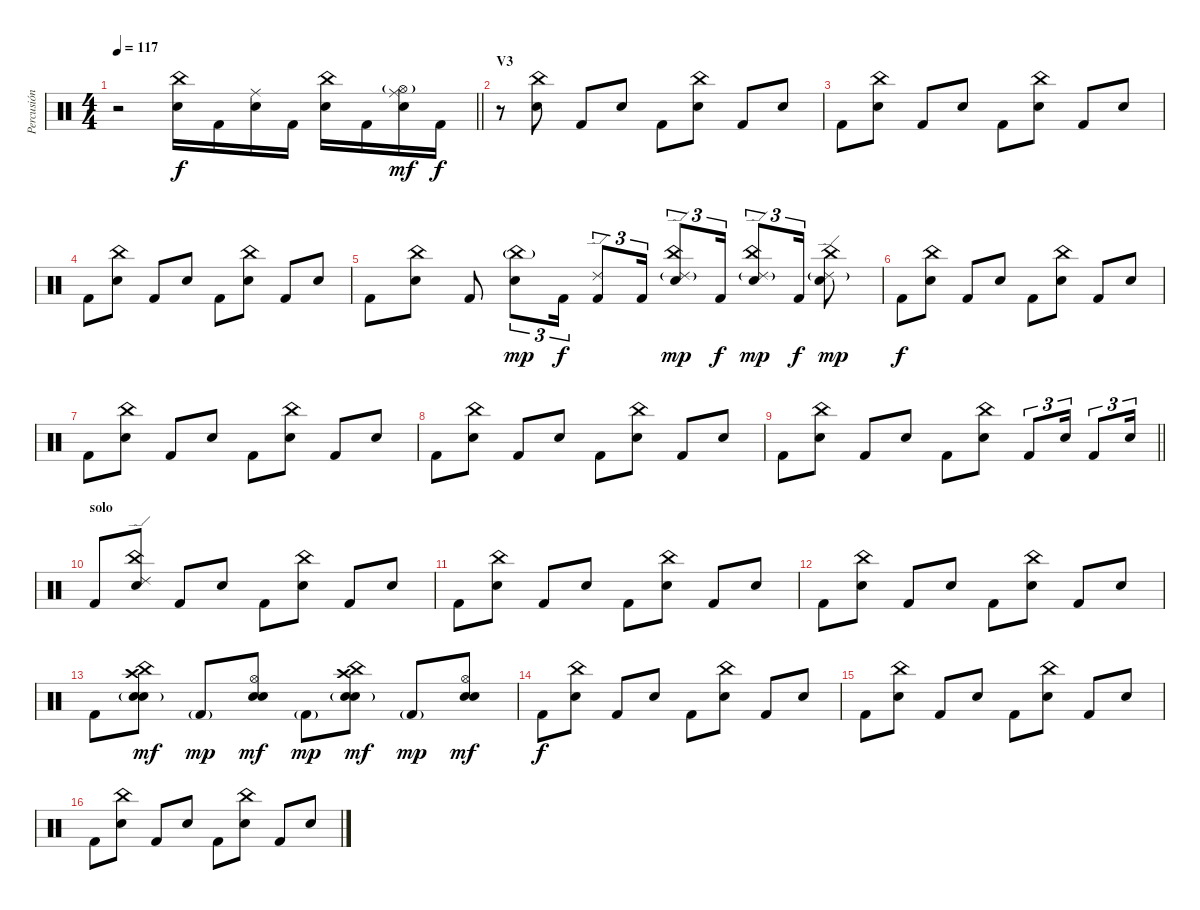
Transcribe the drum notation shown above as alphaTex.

\track ("Percusión" "Percusión") {instrument percussion}
\staff {score}
\articulation defaults
\ts (4 4)
\tempo 117
\clef neutral
\barLineRight lightlight
\ks c
r.2{dy mf} ("Snare (hit) 2" "China (hit)").16{dy f} "Kick (hit) 2".16 ("Snare (hit) 2" "Ride (middle)").16 "Kick (hit) 2".16 ("Snare (hit) 2" "China (hit)").16 "Kick (hit) 2".16 ("Snare (hit) 2" "Ride (middle)" "Hi-Hat (open)"{g}).16{dy mf} "Kick (hit) 2".16{dy f} |
\section ("" "V3")
r.8 ("Snare (hit) 2" "China (hit)").8 "Kick (hit) 2".8 "Snare (hit) 2".8 "Kick (hit) 2".8 ("Snare (hit) 2" "China (hit)").8 "Kick (hit) 2".8 "Snare (hit) 2".8 |
"Kick (hit) 2".8 ("Snare (hit) 2" "China (hit)").8 "Kick (hit) 2".8 "Snare (hit) 2".8 "Kick (hit) 2".8 ("Snare (hit) 2" "China (hit)").8 "Kick (hit) 2".8 "Snare (hit) 2".8 |
"Kick (hit) 2".8 ("Snare (hit) 2" "China (hit)").8 "Kick (hit) 2".8 "Snare (hit) 2".8 "Kick (hit) 2".8 ("Snare (hit) 2" "China (hit)").8 "Kick (hit) 2".8 "Snare (hit) 2".8 |
"Kick (hit) 2".8 ("Snare (hit) 2" "China (hit)").8 "Kick (hit) 2".8 ("Snare (hit) 2" "China (hit)"{g}).8{tu (3 2) dy mp} "Kick (hit) 2".16{tu (3 2) dy f} ("Kick (hit) 2" "Ride (edge) 2").8{tu (3 2)} "Kick (hit) 2".16{tu (3 2)} ("Snare (hit) 2" "China (hit)" "Ride (edge) 2"{g}).8{tu (3 2) dy mp} "Kick (hit) 2".16{tu (3 2) dy f} ("Snare (hit) 2" "China (hit)" "Ride (edge) 2"{g}).8{tu (3 2) dy mp} "Kick (hit) 2".16{tu (3 2) dy f} ("Snare (hit) 2" "China (hit)" "Ride (edge) 2"{g}).8{dy mp} |
"Kick (hit) 2".8{dy f} ("Snare (hit) 2" "China (hit)").8 "Kick (hit) 2".8 "Snare (hit) 2".8 "Kick (hit) 2".8 ("Snare (hit) 2" "China (hit)").8 "Kick (hit) 2".8 "Snare (hit) 2".8 |
"Kick (hit) 2".8 ("Snare (hit) 2" "China (hit)").8 "Kick (hit) 2".8 "Snare (hit) 2".8 "Kick (hit) 2".8 ("Snare (hit) 2" "China (hit)").8 "Kick (hit) 2".8 "Snare (hit) 2".8 |
"Kick (hit) 2".8 ("Snare (hit) 2" "China (hit)").8 "Kick (hit) 2".8 "Snare (hit) 2".8 "Kick (hit) 2".8 ("Snare (hit) 2" "China (hit)").8 "Kick (hit) 2".8 "Snare (hit) 2".8 |
\barLineRight lightlight "Kick (hit) 2".8
("Snare (hit) 2" "China (hit)").8 "Kick (hit) 2".8 "Snare (hit) 2".8 "Kick (hit) 2".8 ("Snare (hit) 2" "China (hit)").8 "Kick (hit) 2".8{tu (3 2)} "Snare (hit) 2".16{tu (3 2)} "Kick (hit) 2".8{tu (3 2)} "Snare (hit) 2".16{tu (3 2)} |
\section ("" "solo")
"Kick (hit) 2".8 ("Snare (hit) 2" "China (hit)" "Ride (edge) 2").8 "Kick (hit) 2".8 "Snare (hit) 2".8 "Kick (hit) 2".8 ("Snare (hit) 2" "China (hit)").8 "Kick (hit) 2".8 "Snare (hit) 2".8 |
"Kick (hit) 2".8 ("Snare (hit) 2" "China (hit)").8 "Kick (hit) 2".8 "Snare (hit) 2".8 "Kick (hit) 2".8 ("Snare (hit) 2" "China (hit)").8 "Kick (hit) 2".8 "Snare (hit) 2".8 |
"Kick (hit) 2".8 ("Snare (hit) 2" "China (hit)").8 "Kick (hit) 2".8 "Snare (hit) 2".8 "Kick (hit) 2".8 ("Snare (hit) 2" "China (hit)").8 "Kick (hit) 2".8 "Snare (hit) 2".8 |
"Kick (hit) 2".8 ("Electric Snare (hit)" "China (hit)" "Snare (hit) 2"{g} "Crash high (hit)").8{dy mf} "Kick (hit) 2"{g}.8{dy mp} ("Snare (hit) 2" "Electric Snare (hit)" "Hi-Hat (open)").8{dy mf} "Kick (hit) 2"{g}.8{dy mp} ("Electric Snare (hit)" "China (hit)" "Snare (hit) 2"{g} "Crash high (hit)").8{dy mf} "Kick (hit) 2"{g}.8{dy mp} ("Snare (hit) 2" "Electric Snare (hit)" "Hi-Hat (open)").8{dy mf} |
"Kick (hit) 2".8{dy f} ("Snare (hit) 2" "China (hit)").8 "Kick (hit) 2".8 "Snare (hit) 2".8 "Kick (hit) 2".8 ("Snare (hit) 2" "China (hit)").8 "Kick (hit) 2".8 "Snare (hit) 2".8 |
"Kick (hit) 2".8 ("Snare (hit) 2" "China (hit)").8 "Kick (hit) 2".8 "Snare (hit) 2".8 "Kick (hit) 2".8 ("Snare (hit) 2" "China (hit)").8 "Kick (hit) 2".8 "Snare (hit) 2".8 |
"Kick (hit) 2".8 ("Snare (hit) 2" "China (hit)").8 "Kick (hit) 2".8 "Snare (hit) 2".8 "Kick (hit) 2".8 ("Snare (hit) 2" "China (hit)").8 "Kick (hit) 2".8 "Snare (hit) 2".8
